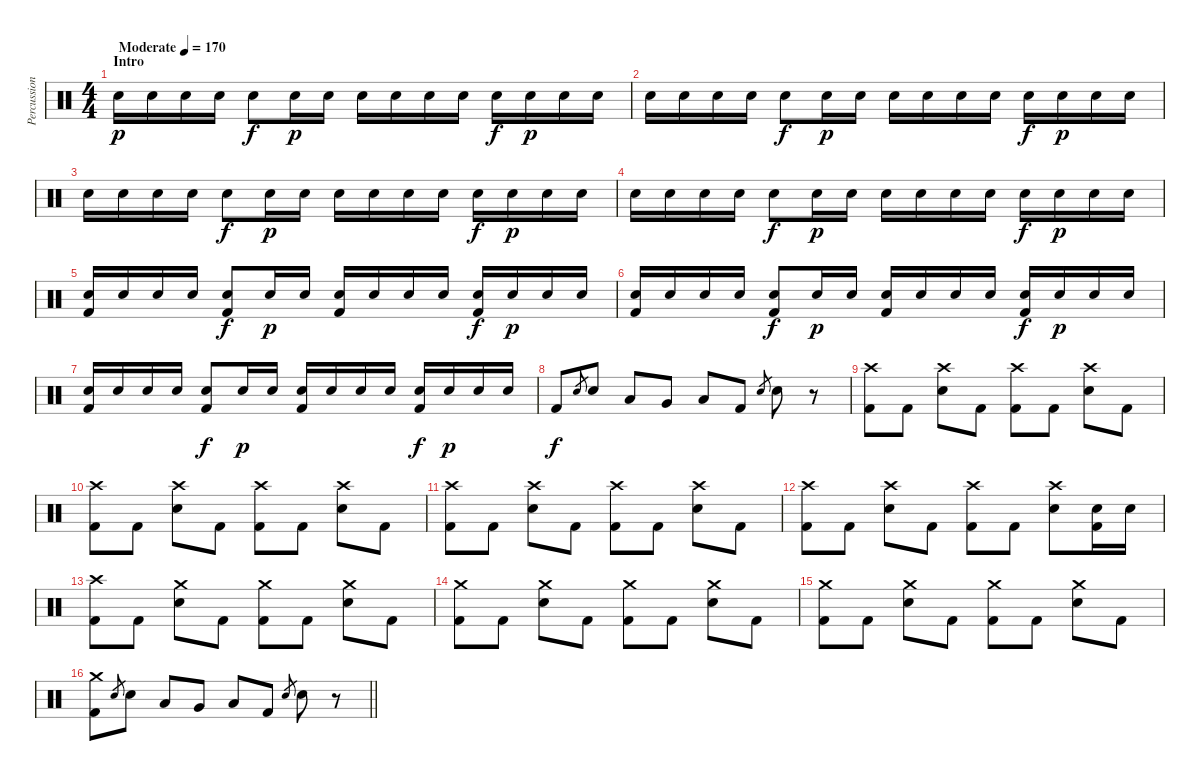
\track ("Percussion" "Percussion") {instrument percussion}
\staff {score}
\articulation defaults
\ts (4 4)
\section ("" "Intro")
\tempo (170 "Moderate")
\clef neutral
\ks c "Electric Snare (hit)".16{dy p} "Electric Snare (hit)".16 "Electric Snare (hit)".16 "Electric Snare (hit)".16 "Electric Snare (hit)".8{dy f} "Electric Snare (hit)".16{dy p} "Electric Snare (hit)".16 "Electric Snare (hit)".16 "Electric Snare (hit)".16 "Electric Snare (hit)".16 "Electric Snare (hit)".16 "Electric Snare (hit)".16{dy f} "Electric Snare (hit)".16{dy p} "Electric Snare (hit)".16 "Electric Snare (hit)".16
|
"Electric Snare (hit)".16 "Electric Snare (hit)".16 "Electric Snare (hit)".16 "Electric Snare (hit)".16 "Electric Snare (hit)".8{dy f} "Electric Snare (hit)".16{dy p} "Electric Snare (hit)".16 "Electric Snare (hit)".16 "Electric Snare (hit)".16 "Electric Snare (hit)".16 "Electric Snare (hit)".16 "Electric Snare (hit)".16{dy f} "Electric Snare (hit)".16{dy p} "Electric Snare (hit)".16 "Electric Snare (hit)".16 |
"Electric Snare (hit)".16 "Electric Snare (hit)".16 "Electric Snare (hit)".16 "Electric Snare (hit)".16 "Electric Snare (hit)".8{dy f} "Electric Snare (hit)".16{dy p} "Electric Snare (hit)".16 "Electric Snare (hit)".16 "Electric Snare (hit)".16 "Electric Snare (hit)".16 "Electric Snare (hit)".16 "Electric Snare (hit)".16{dy f} "Electric Snare (hit)".16{dy p} "Electric Snare (hit)".16 "Electric Snare (hit)".16 |
"Electric Snare (hit)".16 "Electric Snare (hit)".16 "Electric Snare (hit)".16 "Electric Snare (hit)".16 "Electric Snare (hit)".8{dy f} "Electric Snare (hit)".16{dy p} "Electric Snare (hit)".16 "Electric Snare (hit)".16 "Electric Snare (hit)".16 "Electric Snare (hit)".16 "Electric Snare (hit)".16 "Electric Snare (hit)".16{dy f} "Electric Snare (hit)".16{dy p} "Electric Snare (hit)".16 "Electric Snare (hit)".16 |
("Electric Snare (hit)" "Kick (hit) 2").16 "Electric Snare (hit)".16 "Electric Snare (hit)".16 "Electric Snare (hit)".16 ("Electric Snare (hit)" "Kick (hit) 2").8{dy f} "Electric Snare (hit)".16{dy p} "Electric Snare (hit)".16 ("Electric Snare (hit)" "Kick (hit) 2").16 "Electric Snare (hit)".16 "Electric Snare (hit)".16 "Electric Snare (hit)".16 ("Electric Snare (hit)" "Kick (hit) 2").16{dy f} "Electric Snare (hit)".16{dy p} "Electric Snare (hit)".16 "Electric Snare (hit)".16 |
("Electric Snare (hit)" "Kick (hit) 2").16 "Electric Snare (hit)".16 "Electric Snare (hit)".16 "Electric Snare (hit)".16 ("Electric Snare (hit)" "Kick (hit) 2").8{dy f} "Electric Snare (hit)".16{dy p} "Electric Snare (hit)".16 ("Electric Snare (hit)" "Kick (hit) 2").16 "Electric Snare (hit)".16 "Electric Snare (hit)".16 "Electric Snare (hit)".16 ("Electric Snare (hit)" "Kick (hit) 2").16{dy f} "Electric Snare (hit)".16{dy p} "Electric Snare (hit)".16 "Electric Snare (hit)".16 |
("Electric Snare (hit)" "Kick (hit) 2").16 "Electric Snare (hit)".16 "Electric Snare (hit)".16 "Electric Snare (hit)".16 ("Electric Snare (hit)" "Kick (hit) 2").8{dy f} "Electric Snare (hit)".16{dy p} "Electric Snare (hit)".16 ("Electric Snare (hit)" "Kick (hit) 2").16 "Electric Snare (hit)".16 "Electric Snare (hit)".16 "Electric Snare (hit)".16 ("Electric Snare (hit)" "Kick (hit) 2").16{dy f} "Electric Snare (hit)".16{dy p} "Electric Snare (hit)".16 "Electric Snare (hit)".16 |
"Kick (hit) 2".8{dy f} "Electric Snare (hit)".8{gr} "Electric Snare (hit)".8 "Low Tom (hit)".8 "Very Low Tom (hit)".8 "Low Tom (hit)".8 "Kick (hit) 2".8 "Electric Snare (hit)".8{gr} "Electric Snare (hit)".8 r.8 |
("Crash high (hit)" "Kick (hit) 2").8 "Kick (hit) 2".8 ("Crash high (hit)" "Electric Snare (hit)").8 "Kick (hit) 2".8 ("Crash high (hit)" "Kick (hit) 2").8 "Kick (hit) 2".8 ("Crash high (hit)" "Electric Snare (hit)").8 "Kick (hit) 2".8 |
("Crash high (hit)" "Kick (hit) 2").8 "Kick (hit) 2".8 ("Crash high (hit)" "Electric Snare (hit)").8 "Kick (hit) 2".8 ("Crash high (hit)" "Kick (hit) 2").8 "Kick (hit) 2".8 ("Crash high (hit)" "Electric Snare (hit)").8 "Kick (hit) 2".8 |
("Crash high (hit)" "Kick (hit) 2").8 "Kick (hit) 2".8 ("Crash high (hit)" "Electric Snare (hit)").8 "Kick (hit) 2".8 ("Crash high (hit)" "Kick (hit) 2").8 "Kick (hit) 2".8 ("Crash high (hit)" "Electric Snare (hit)").8 "Kick (hit) 2".8 |
("Crash high (hit)" "Kick (hit) 2").8 "Kick (hit) 2".8 ("Crash high (hit)" "Electric Snare (hit)").8 "Kick (hit) 2".8 ("Crash high (hit)" "Kick (hit) 2").8 "Kick (hit) 2".8 ("Crash high (hit)" "Electric Snare (hit)").8 ("Kick (hit) 2" "Electric Snare (hit)").16 "Electric Snare (hit)".16 |
("Crash high (hit)" "Kick (hit) 2").8 "Kick (hit) 2".8 ("Crash medium (hit)" "Electric Snare (hit)").8 "Kick (hit) 2".8 ("Crash medium (hit)" "Kick (hit) 2").8 "Kick (hit) 2".8 ("Crash medium (hit)" "Electric Snare (hit)").8 "Kick (hit) 2".8 |
("Crash medium (hit)" "Kick (hit) 2").8 "Kick (hit) 2".8 ("Crash medium (hit)" "Electric Snare (hit)").8 "Kick (hit) 2".8 ("Crash medium (hit)" "Kick (hit) 2").8 "Kick (hit) 2".8 ("Crash medium (hit)" "Electric Snare (hit)").8 "Kick (hit) 2".8 |
("Crash medium (hit)" "Kick (hit) 2").8 "Kick (hit) 2".8 ("Crash medium (hit)" "Electric Snare (hit)").8 "Kick (hit) 2".8 ("Crash medium (hit)" "Kick (hit) 2").8 "Kick (hit) 2".8 ("Crash medium (hit)" "Electric Snare (hit)").8 "Kick (hit) 2".8 |
\barLineRight lightlight
("Kick (hit) 2" "Crash medium (hit)").8 "Electric Snare (hit)".8{gr} "Electric Snare (hit)".8 "Low Tom (hit)".8 "Very Low Tom (hit)".8 "Low Tom (hit)".8 "Kick (hit) 2".8 "Electric Snare (hit)".8{gr} "Electric Snare (hit)".8 r.8
